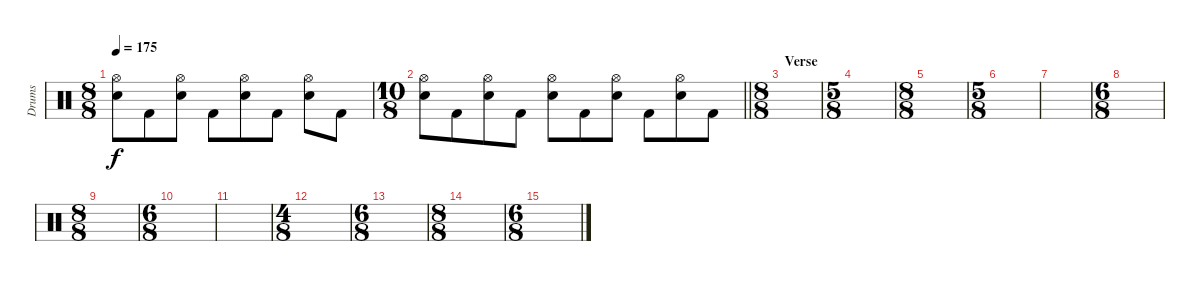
\track ("Drums" "Drums") {instrument percussion}
\staff {score}
\articulation defaults
\ts (8 8)
\tempo 175
\clef neutral
\ks c
("Hi-Hat (open)" "Electric Snare (hit)").8{dy f} "Kick (hit) 2".8 ("Hi-Hat (open)" "Electric Snare (hit)").8 "Kick (hit) 2".8 ("Hi-Hat (open)" "Electric Snare (hit)").8 "Kick (hit) 2".8 ("Hi-Hat (open)" "Electric Snare (hit)").8 "Kick (hit) 2".8 |
\ts (10 8)
\barLineRight lightlight
("Hi-Hat (open)" "Electric Snare (hit)").8 "Kick (hit) 2".8 ("Hi-Hat (open)" "Electric Snare (hit)").8 "Kick (hit) 2".8 ("Hi-Hat (open)" "Electric Snare (hit)").8 "Kick (hit) 2".8 ("Hi-Hat (open)" "Electric Snare (hit)").8 "Kick (hit) 2".8 ("Hi-Hat (open)" "Electric Snare (hit)").8 "Kick (hit) 2".8 |
\ts (8 8)
\section ("" "Verse")
|
\ts (5 8)
|
\ts (8 8)
|
\ts (5 8)
|
|
\ts (6 8)
|
\ts (8 8)
|
\ts (6 8)
|
|
\ts (4 8)
|
\ts (6 8)
|
\ts (8 8)
|
\ts (6 8)
